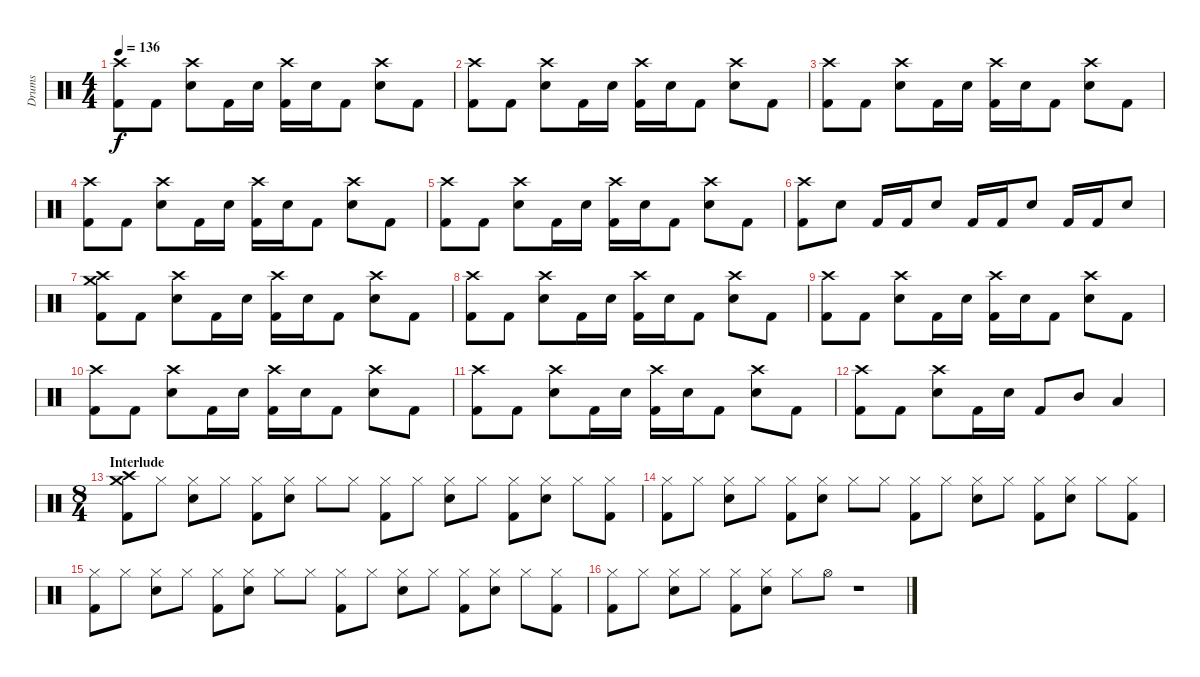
\track ("Drums" "Drums") {instrument percussion}
\staff {score}
\articulation defaults
\ts (4 4)
\tempo 136
\clef neutral
\ks c
("Crash high (hit)" "Kick (hit) 2").8{dy f} "Kick (hit) 2".8 ("Crash high (hit)" "Electric Snare (hit)").8 "Kick (hit) 2".16 "Electric Snare (hit)".16 ("Crash high (hit)" "Kick (hit) 2").16 "Electric Snare (hit)".16 "Kick (hit) 2".8 ("Crash high (hit)" "Electric Snare (hit)").8 "Kick (hit) 2".8 |
("Crash high (hit)" "Kick (hit) 2").8 "Kick (hit) 2".8 ("Crash high (hit)" "Electric Snare (hit)").8 "Kick (hit) 2".16 "Electric Snare (hit)".16 ("Crash high (hit)" "Kick (hit) 2").16 "Electric Snare (hit)".16 "Kick (hit) 2".8 ("Crash high (hit)" "Electric Snare (hit)").8 "Kick (hit) 2".8 |
("Crash high (hit)" "Kick (hit) 2").8 "Kick (hit) 2".8 ("Crash high (hit)" "Electric Snare (hit)").8 "Kick (hit) 2".16 "Electric Snare (hit)".16 ("Crash high (hit)" "Kick (hit) 2").16 "Electric Snare (hit)".16 "Kick (hit) 2".8 ("Crash high (hit)" "Electric Snare (hit)").8 "Kick (hit) 2".8 |
("Crash high (hit)" "Kick (hit) 2").8 "Kick (hit) 2".8 ("Crash high (hit)" "Electric Snare (hit)").8 "Kick (hit) 2".16 "Electric Snare (hit)".16 ("Crash high (hit)" "Kick (hit) 2").16 "Electric Snare (hit)".16 "Kick (hit) 2".8 ("Crash high (hit)" "Electric Snare (hit)").8 "Kick (hit) 2".8 |
("Crash high (hit)" "Kick (hit) 2").8 "Kick (hit) 2".8 ("Crash high (hit)" "Electric Snare (hit)").8 "Kick (hit) 2".16 "Electric Snare (hit)".16 ("Crash high (hit)" "Kick (hit) 2").16 "Electric Snare (hit)".16 "Kick (hit) 2".8 ("Crash high (hit)" "Electric Snare (hit)").8 "Kick (hit) 2".8 |
("Crash high (hit)" "Kick (hit) 2").8 "Electric Snare (hit)".8 "Kick (hit) 2".16 "Kick (hit) 2".16 "Electric Snare (hit)".8 "Kick (hit) 2".16 "Kick (hit) 2".16 "Electric Snare (hit)".8 "Kick (hit) 2".16 "Kick (hit) 2".16 "Electric Snare (hit)".8 |
("Crash medium (hit)" "Crash high (hit)" "Kick (hit) 2").8 "Kick (hit) 2".8 ("Crash high (hit)" "Electric Snare (hit)").8 "Kick (hit) 2".16 "Electric Snare (hit)".16 ("Crash high (hit)" "Kick (hit) 2").16 "Electric Snare (hit)".16 "Kick (hit) 2".8 ("Crash high (hit)" "Electric Snare (hit)").8 "Kick (hit) 2".8 |
("Crash high (hit)" "Kick (hit) 2").8 "Kick (hit) 2".8 ("Crash high (hit)" "Electric Snare (hit)").8 "Kick (hit) 2".16 "Electric Snare (hit)".16 ("Crash high (hit)" "Kick (hit) 2").16 "Electric Snare (hit)".16 "Kick (hit) 2".8 ("Crash high (hit)" "Electric Snare (hit)").8 "Kick (hit) 2".8 |
("Crash high (hit)" "Kick (hit) 2").8 "Kick (hit) 2".8 ("Crash high (hit)" "Electric Snare (hit)").8 "Kick (hit) 2".16 "Electric Snare (hit)".16 ("Crash high (hit)" "Kick (hit) 2").16 "Electric Snare (hit)".16 "Kick (hit) 2".8 ("Crash high (hit)" "Electric Snare (hit)").8 "Kick (hit) 2".8 |
("Crash high (hit)" "Kick (hit) 2").8 "Kick (hit) 2".8 ("Crash high (hit)" "Electric Snare (hit)").8 "Kick (hit) 2".16 "Electric Snare (hit)".16 ("Crash high (hit)" "Kick (hit) 2").16 "Electric Snare (hit)".16 "Kick (hit) 2".8 ("Crash high (hit)" "Electric Snare (hit)").8 "Kick (hit) 2".8 |
("Crash high (hit)" "Kick (hit) 2").8 "Kick (hit) 2".8 ("Crash high (hit)" "Electric Snare (hit)").8 "Kick (hit) 2".16 "Electric Snare (hit)".16 ("Crash high (hit)" "Kick (hit) 2").16 "Electric Snare (hit)".16 "Kick (hit) 2".8 ("Crash high (hit)" "Electric Snare (hit)").8 "Kick (hit) 2".8 |
("Crash high (hit)" "Kick (hit) 2").8 "Kick (hit) 2".8 ("Crash high (hit)" "Electric Snare (hit)").8 "Kick (hit) 2".16 "Electric Snare (hit)".16 "Kick (hit) 2".8 "Mid Tom (hit)".8 "Low Tom (hit)".4 |
\ts (8 4)
\section ("" "Interlude")
("Crash medium (hit)" "Crash high (hit)" "Kick (hit) 2").8 "Hi-Hat (closed)".8 ("Hi-Hat (closed)" "Electric Snare (hit)").8 "Hi-Hat (closed)".8 ("Hi-Hat (closed)" "Kick (hit) 2").8 ("Hi-Hat (closed)" "Electric Snare (hit)").8 "Hi-Hat (closed)".8 "Hi-Hat (closed)".8 ("Hi-Hat (closed)" "Kick (hit) 2").8 "Hi-Hat (closed)".8 ("Hi-Hat (closed)" "Electric Snare (hit)").8 "Hi-Hat (closed)".8 ("Hi-Hat (closed)" "Kick (hit) 2").8 ("Hi-Hat (closed)" "Electric Snare (hit)").8 "Hi-Hat (closed)".8 ("Hi-Hat (closed)" "Kick (hit) 2").8 |
("Hi-Hat (closed)" "Kick (hit) 2").8 "Hi-Hat (closed)".8 ("Hi-Hat (closed)" "Electric Snare (hit)").8 "Hi-Hat (closed)".8 ("Hi-Hat (closed)" "Kick (hit) 2").8 ("Hi-Hat (closed)" "Electric Snare (hit)").8 "Hi-Hat (closed)".8 "Hi-Hat (closed)".8 ("Hi-Hat (closed)" "Kick (hit) 2").8 "Hi-Hat (closed)".8 ("Hi-Hat (closed)" "Electric Snare (hit)").8 "Hi-Hat (closed)".8 ("Hi-Hat (closed)" "Kick (hit) 2").8 ("Hi-Hat (closed)" "Electric Snare (hit)").8 "Hi-Hat (closed)".8 ("Hi-Hat (closed)" "Kick (hit) 2").8 |
("Hi-Hat (closed)" "Kick (hit) 2").8 "Hi-Hat (closed)".8 ("Hi-Hat (closed)" "Electric Snare (hit)").8 "Hi-Hat (closed)".8 ("Hi-Hat (closed)" "Kick (hit) 2").8 ("Hi-Hat (closed)" "Electric Snare (hit)").8 "Hi-Hat (closed)".8 "Hi-Hat (closed)".8 ("Hi-Hat (closed)" "Kick (hit) 2").8 "Hi-Hat (closed)".8 ("Hi-Hat (closed)" "Electric Snare (hit)").8 "Hi-Hat (closed)".8 ("Hi-Hat (closed)" "Kick (hit) 2").8 ("Hi-Hat (closed)" "Electric Snare (hit)").8 "Hi-Hat (closed)".8 ("Hi-Hat (closed)" "Kick (hit) 2").8 |
("Hi-Hat (closed)" "Kick (hit) 2").8 "Hi-Hat (closed)".8 ("Hi-Hat (closed)" "Electric Snare (hit)").8 "Hi-Hat (closed)".8 ("Hi-Hat (closed)" "Kick (hit) 2").8 ("Hi-Hat (closed)" "Electric Snare (hit)").8 "Hi-Hat (closed)".8 "Hi-Hat (open)".8 r.1
